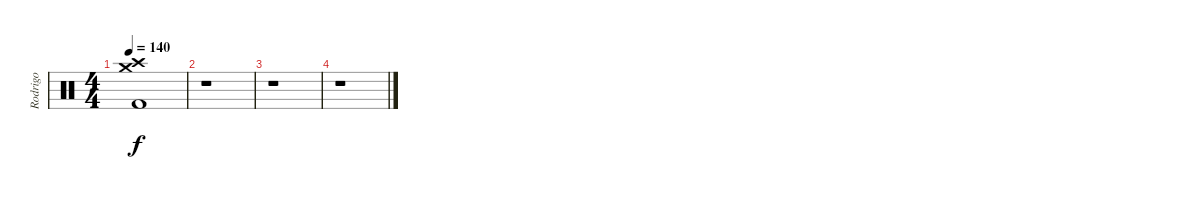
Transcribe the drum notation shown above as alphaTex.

\track ("Rodrigo" "Rodrigo") {instrument percussion}
\staff {score}
\articulation defaults
\ts (4 4)
\tempo 140
\clef neutral
\ks c
("Crash medium (hit)" "Crash high (hit)" "Kick (hit) 2").1{dy f} |
r.1 |
r.1 |
r.1
